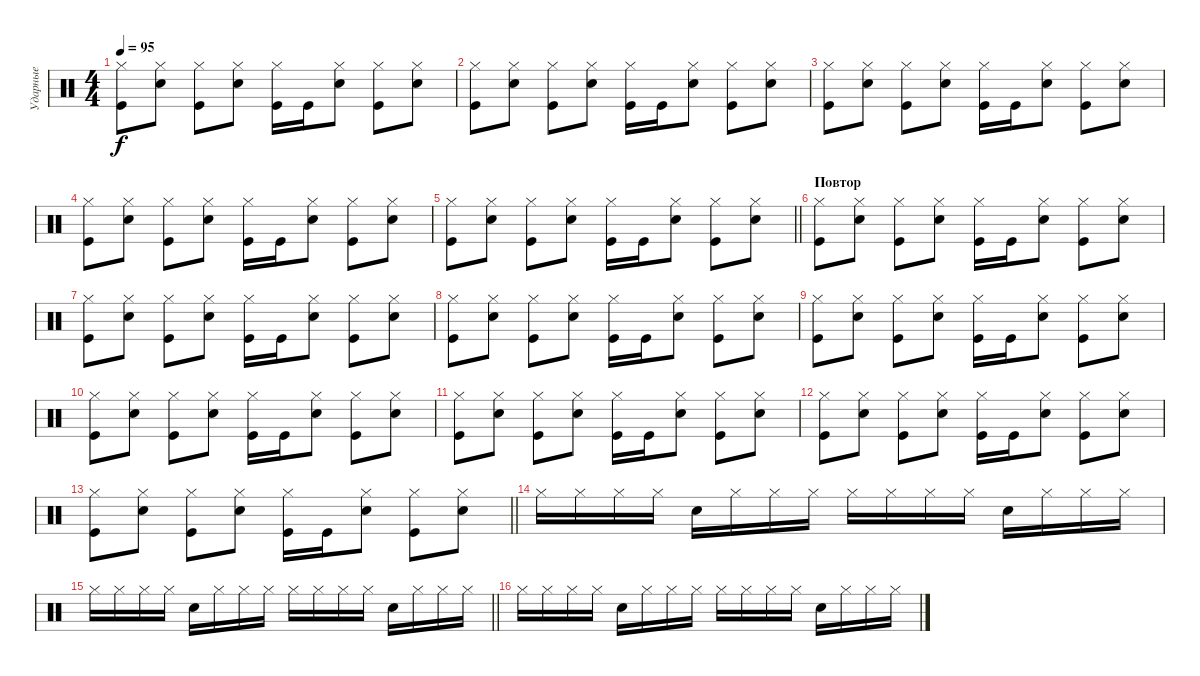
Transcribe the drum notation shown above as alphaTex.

\track ("Ударные" "Ударные") {instrument percussion}
\staff {score}
\articulation defaults
\ts (4 4)
\tempo 95
\clef neutral
\ks c
("Hi-Hat (closed)" "Kick (hit)").8{dy f} ("Hi-Hat (closed)" "Snare (hit) 2").8 ("Hi-Hat (closed)" "Kick (hit)").8 ("Hi-Hat (closed)" "Snare (hit) 2").8 ("Hi-Hat (closed)" "Kick (hit)").16 "Kick (hit)".16 ("Hi-Hat (closed)" "Snare (hit) 2").8 ("Hi-Hat (closed)" "Kick (hit)").8 ("Hi-Hat (closed)" "Snare (hit) 2").8 |
("Hi-Hat (closed)" "Kick (hit)").8 ("Hi-Hat (closed)" "Snare (hit) 2").8 ("Hi-Hat (closed)" "Kick (hit)").8 ("Hi-Hat (closed)" "Snare (hit) 2").8 ("Hi-Hat (closed)" "Kick (hit)").16 "Kick (hit)".16 ("Hi-Hat (closed)" "Snare (hit) 2").8 ("Hi-Hat (closed)" "Kick (hit)").8 ("Hi-Hat (closed)" "Snare (hit) 2").8 |
("Hi-Hat (closed)" "Kick (hit)").8 ("Hi-Hat (closed)" "Snare (hit) 2").8 ("Hi-Hat (closed)" "Kick (hit)").8 ("Hi-Hat (closed)" "Snare (hit) 2").8 ("Hi-Hat (closed)" "Kick (hit)").16 "Kick (hit)".16 ("Hi-Hat (closed)" "Snare (hit) 2").8 ("Hi-Hat (closed)" "Kick (hit)").8 ("Hi-Hat (closed)" "Snare (hit) 2").8 |
("Hi-Hat (closed)" "Kick (hit)").8 ("Hi-Hat (closed)" "Snare (hit) 2").8 ("Hi-Hat (closed)" "Kick (hit)").8 ("Hi-Hat (closed)" "Snare (hit) 2").8 ("Hi-Hat (closed)" "Kick (hit)").16 "Kick (hit)".16 ("Hi-Hat (closed)" "Snare (hit) 2").8 ("Hi-Hat (closed)" "Kick (hit)").8 ("Hi-Hat (closed)" "Snare (hit) 2").8 |
\barLineRight lightlight
("Hi-Hat (closed)" "Kick (hit)").8 ("Hi-Hat (closed)" "Snare (hit) 2").8 ("Hi-Hat (closed)" "Kick (hit)").8 ("Hi-Hat (closed)" "Snare (hit) 2").8 ("Hi-Hat (closed)" "Kick (hit)").16 "Kick (hit)".16 ("Hi-Hat (closed)" "Snare (hit) 2").8 ("Hi-Hat (closed)" "Kick (hit)").8 ("Hi-Hat (closed)" "Snare (hit) 2").8 |
\section ("" "Повтор")
("Hi-Hat (closed)" "Kick (hit)").8 ("Hi-Hat (closed)" "Snare (hit) 2").8 ("Hi-Hat (closed)" "Kick (hit)").8 ("Hi-Hat (closed)" "Snare (hit) 2").8 ("Hi-Hat (closed)" "Kick (hit)").16 "Kick (hit)".16 ("Hi-Hat (closed)" "Snare (hit) 2").8 ("Hi-Hat (closed)" "Kick (hit)").8 ("Hi-Hat (closed)" "Snare (hit) 2").8 |
("Hi-Hat (closed)" "Kick (hit)").8 ("Hi-Hat (closed)" "Snare (hit) 2").8 ("Hi-Hat (closed)" "Kick (hit)").8 ("Hi-Hat (closed)" "Snare (hit) 2").8 ("Hi-Hat (closed)" "Kick (hit)").16 "Kick (hit)".16 ("Hi-Hat (closed)" "Snare (hit) 2").8 ("Hi-Hat (closed)" "Kick (hit)").8 ("Hi-Hat (closed)" "Snare (hit) 2").8 |
("Hi-Hat (closed)" "Kick (hit)").8 ("Hi-Hat (closed)" "Snare (hit) 2").8 ("Hi-Hat (closed)" "Kick (hit)").8 ("Hi-Hat (closed)" "Snare (hit) 2").8 ("Hi-Hat (closed)" "Kick (hit)").16 "Kick (hit)".16 ("Hi-Hat (closed)" "Snare (hit) 2").8 ("Hi-Hat (closed)" "Kick (hit)").8 ("Hi-Hat (closed)" "Snare (hit) 2").8 |
("Hi-Hat (closed)" "Kick (hit)").8 ("Hi-Hat (closed)" "Snare (hit) 2").8 ("Hi-Hat (closed)" "Kick (hit)").8 ("Hi-Hat (closed)" "Snare (hit) 2").8 ("Hi-Hat (closed)" "Kick (hit)").16 "Kick (hit)".16 ("Hi-Hat (closed)" "Snare (hit) 2").8 ("Hi-Hat (closed)" "Kick (hit)").8 ("Hi-Hat (closed)" "Snare (hit) 2").8 |
("Hi-Hat (closed)" "Kick (hit)").8 ("Hi-Hat (closed)" "Snare (hit) 2").8 ("Hi-Hat (closed)" "Kick (hit)").8 ("Hi-Hat (closed)" "Snare (hit) 2").8 ("Hi-Hat (closed)" "Kick (hit)").16 "Kick (hit)".16 ("Hi-Hat (closed)" "Snare (hit) 2").8 ("Hi-Hat (closed)" "Kick (hit)").8 ("Hi-Hat (closed)" "Snare (hit) 2").8 |
("Hi-Hat (closed)" "Kick (hit)").8 ("Hi-Hat (closed)" "Snare (hit) 2").8 ("Hi-Hat (closed)" "Kick (hit)").8 ("Hi-Hat (closed)" "Snare (hit) 2").8 ("Hi-Hat (closed)" "Kick (hit)").16 "Kick (hit)".16 ("Hi-Hat (closed)" "Snare (hit) 2").8 ("Hi-Hat (closed)" "Kick (hit)").8 ("Hi-Hat (closed)" "Snare (hit) 2").8 |
("Hi-Hat (closed)" "Kick (hit)").8 ("Hi-Hat (closed)" "Snare (hit) 2").8 ("Hi-Hat (closed)" "Kick (hit)").8 ("Hi-Hat (closed)" "Snare (hit) 2").8 ("Hi-Hat (closed)" "Kick (hit)").16 "Kick (hit)".16 ("Hi-Hat (closed)" "Snare (hit) 2").8 ("Hi-Hat (closed)" "Kick (hit)").8 ("Hi-Hat (closed)" "Snare (hit) 2").8 |
\barLineRight lightlight
("Hi-Hat (closed)" "Kick (hit)").8 ("Hi-Hat (closed)" "Snare (hit) 2").8 ("Hi-Hat (closed)" "Kick (hit)").8 ("Hi-Hat (closed)" "Snare (hit) 2").8 ("Hi-Hat (closed)" "Kick (hit)").16 "Kick (hit)".16 ("Hi-Hat (closed)" "Snare (hit) 2").8 ("Hi-Hat (closed)" "Kick (hit)").8 ("Hi-Hat (closed)" "Snare (hit) 2").8 |
"Hi-Hat (closed)".16 "Hi-Hat (closed)".16 "Hi-Hat (closed)".16 "Hi-Hat (closed)".16 "Snare (hit) 2".16 "Hi-Hat (closed)".16 "Hi-Hat (closed)".16 "Hi-Hat (closed)".16 "Hi-Hat (closed)".16 "Hi-Hat (closed)".16 "Hi-Hat (closed)".16 "Hi-Hat (closed)".16 "Snare (hit) 2".16 "Hi-Hat (closed)".16 "Hi-Hat (closed)".16 "Hi-Hat (closed)".16 |
\barLineRight lightlight "Hi-Hat (closed)".16 "Hi-Hat (closed)".16 "Hi-Hat (closed)".16 "Hi-Hat (closed)".16 "Snare (hit) 2".16 "Hi-Hat (closed)".16 "Hi-Hat (closed)".16 "Hi-Hat (closed)".16 "Hi-Hat (closed)".16 "Hi-Hat (closed)".16 "Hi-Hat (closed)".16 "Hi-Hat (closed)".16 "Snare (hit) 2".16 "Hi-Hat (closed)".16 "Hi-Hat (closed)".16 "Hi-Hat (closed)".16
|
"Hi-Hat (closed)".16 "Hi-Hat (closed)".16 "Hi-Hat (closed)".16 "Hi-Hat (closed)".16 "Snare (hit) 2".16 "Hi-Hat (closed)".16 "Hi-Hat (closed)".16 "Hi-Hat (closed)".16 "Hi-Hat (closed)".16 "Hi-Hat (closed)".16 "Hi-Hat (closed)".16 "Hi-Hat (closed)".16 "Snare (hit) 2".16 "Hi-Hat (closed)".16 "Hi-Hat (closed)".16 "Hi-Hat (closed)".16
